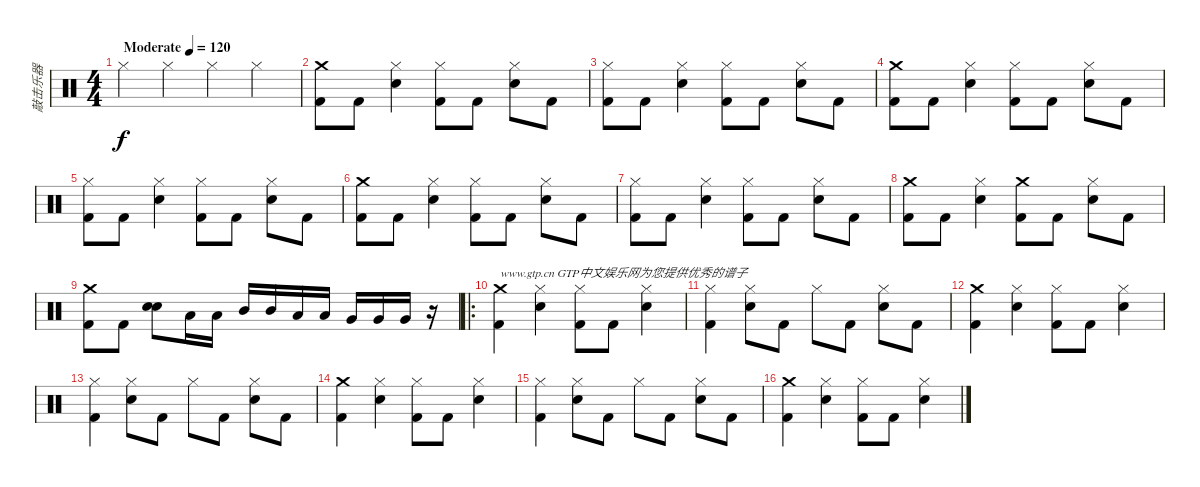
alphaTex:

\track ("敲击乐器" "敲击乐器") {instrument percussion}
\staff {score}
\articulation defaults
\ts (4 4)
\tempo (120 "Moderate")
\clef neutral
\ks c "Hi-Hat (closed)".4{dy f} "Hi-Hat (closed)".4 "Hi-Hat (closed)".4 "Hi-Hat (closed)".4
|
("Crash medium (hit)" "Kick (hit) 2").8 "Kick (hit) 2".8 ("Hi-Hat (closed)" "Electric Snare (hit)").4 ("Hi-Hat (closed)" "Kick (hit) 2").8 "Kick (hit) 2".8 ("Hi-Hat (closed)" "Electric Snare (hit)").8 "Kick (hit) 2".8 |
("Hi-Hat (closed)" "Kick (hit) 2").8 "Kick (hit) 2".8 ("Hi-Hat (closed)" "Electric Snare (hit)").4 ("Hi-Hat (closed)" "Kick (hit) 2").8 "Kick (hit) 2".8 ("Hi-Hat (closed)" "Electric Snare (hit)").8 "Kick (hit) 2".8 |
("Crash medium (hit)" "Kick (hit) 2").8 "Kick (hit) 2".8 ("Hi-Hat (closed)" "Electric Snare (hit)").4 ("Hi-Hat (closed)" "Kick (hit) 2").8 "Kick (hit) 2".8 ("Hi-Hat (closed)" "Electric Snare (hit)").8 "Kick (hit) 2".8 |
("Hi-Hat (closed)" "Kick (hit) 2").8 "Kick (hit) 2".8 ("Hi-Hat (closed)" "Electric Snare (hit)").4 ("Hi-Hat (closed)" "Kick (hit) 2").8 "Kick (hit) 2".8 ("Hi-Hat (closed)" "Electric Snare (hit)").8 "Kick (hit) 2".8 |
("Crash medium (hit)" "Kick (hit) 2").8 "Kick (hit) 2".8 ("Hi-Hat (closed)" "Electric Snare (hit)").4 ("Hi-Hat (closed)" "Kick (hit) 2").8 "Kick (hit) 2".8 ("Hi-Hat (closed)" "Electric Snare (hit)").8 "Kick (hit) 2".8 |
("Hi-Hat (closed)" "Kick (hit) 2").8 "Kick (hit) 2".8 ("Hi-Hat (closed)" "Electric Snare (hit)").4 ("Hi-Hat (closed)" "Kick (hit) 2").8 "Kick (hit) 2".8 ("Hi-Hat (closed)" "Electric Snare (hit)").8 "Kick (hit) 2".8 |
("Crash medium (hit)" "Kick (hit) 2").8 "Kick (hit) 2".8 ("Hi-Hat (closed)" "Electric Snare (hit)").4 ("Crash medium (hit)" "Kick (hit) 2").8 "Kick (hit) 2".8 ("Hi-Hat (closed)" "Electric Snare (hit)").8 "Kick (hit) 2".8 |
("Crash medium (hit)" "Kick (hit) 2").8 "Kick (hit) 2".8 ("Electric Snare (hit)" "Electric Snare (hit)").8 "Low Tom (hit)".16 "Low Tom (hit)".16 "Mid Tom (hit)".16 "Mid Tom (hit)".16 "Low Tom (hit)".16 "Low Tom (hit)".16 "Very Low Tom (hit)".16 "Very Low Tom (hit)".16 "Very Low Tom (hit)".16 r.16 |
\ro
("Crash medium (hit)" "Kick (hit) 2").4{txt "www.gtp.cn GTP中文娱乐网为您提供优秀的谱子"} ("Hi-Hat (closed)" "Electric Snare (hit)").4 ("Hi-Hat (closed)" "Kick (hit) 2").8 "Kick (hit) 2".8 ("Hi-Hat (closed)" "Electric Snare (hit)").4 |
("Hi-Hat (closed)" "Kick (hit) 2").4 ("Hi-Hat (closed)" "Electric Snare (hit)").8 "Kick (hit) 2".8 "Hi-Hat (closed)".8 "Kick (hit) 2".8 ("Hi-Hat (closed)" "Electric Snare (hit)").8 "Kick (hit) 2".8 |
("Crash medium (hit)" "Kick (hit) 2").4 ("Hi-Hat (closed)" "Electric Snare (hit)").4 ("Hi-Hat (closed)" "Kick (hit) 2").8 "Kick (hit) 2".8 ("Hi-Hat (closed)" "Electric Snare (hit)").4 |
("Hi-Hat (closed)" "Kick (hit) 2").4 ("Hi-Hat (closed)" "Electric Snare (hit)").8 "Kick (hit) 2".8 "Hi-Hat (closed)".8 "Kick (hit) 2".8 ("Hi-Hat (closed)" "Electric Snare (hit)").8 "Kick (hit) 2".8 |
("Crash medium (hit)" "Kick (hit) 2").4 ("Hi-Hat (closed)" "Electric Snare (hit)").4 ("Hi-Hat (closed)" "Kick (hit) 2").8 "Kick (hit) 2".8 ("Hi-Hat (closed)" "Electric Snare (hit)").4 |
("Hi-Hat (closed)" "Kick (hit) 2").4 ("Hi-Hat (closed)" "Electric Snare (hit)").8 "Kick (hit) 2".8 "Hi-Hat (closed)".8 "Kick (hit) 2".8 ("Hi-Hat (closed)" "Electric Snare (hit)").8 "Kick (hit) 2".8 |
("Crash medium (hit)" "Kick (hit) 2").4 ("Hi-Hat (closed)" "Electric Snare (hit)").4 ("Hi-Hat (closed)" "Kick (hit) 2").8 "Kick (hit) 2".8 ("Hi-Hat (closed)" "Electric Snare (hit)").4
